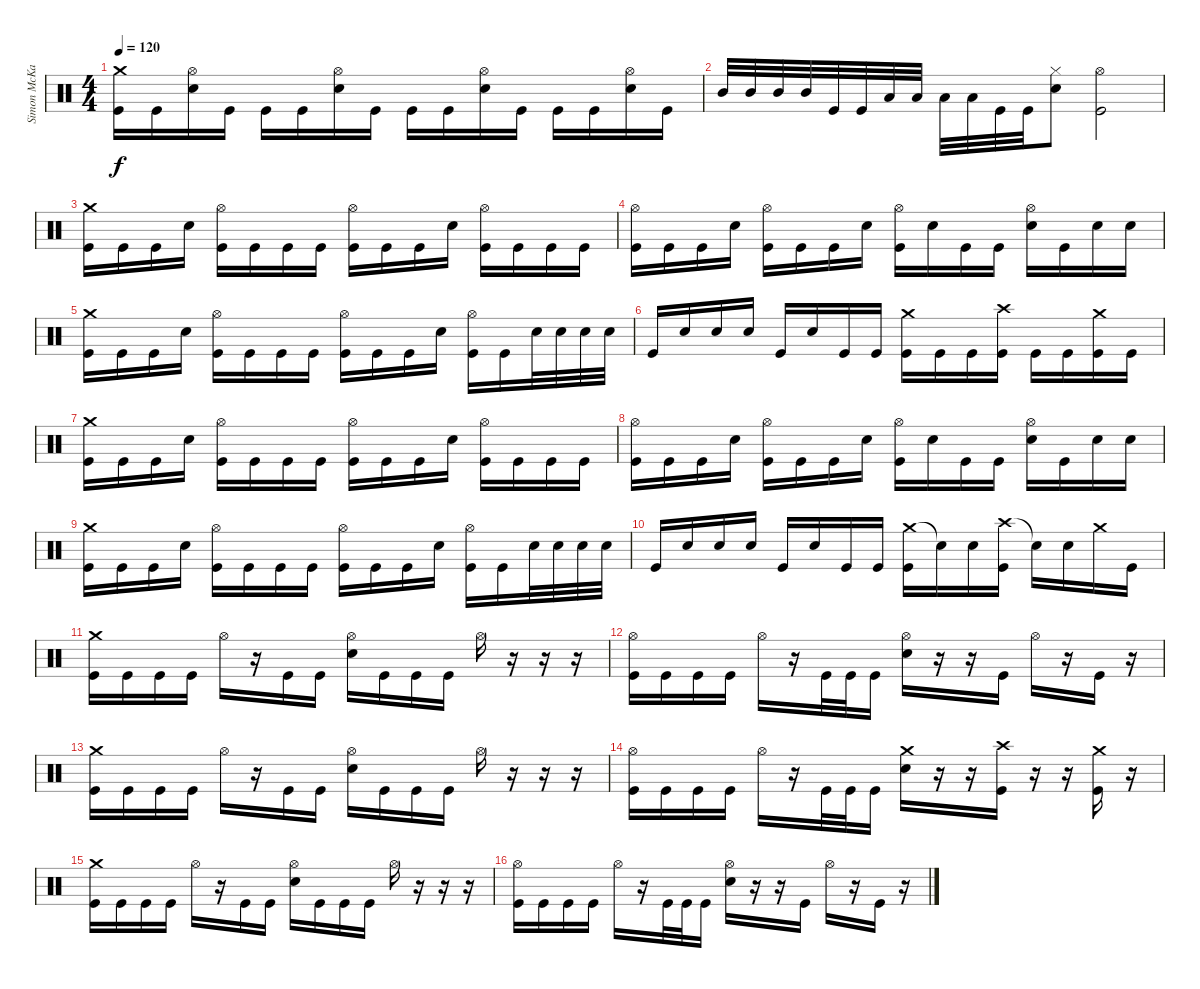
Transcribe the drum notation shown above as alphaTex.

\track ("Simon McKay" "Simon McKa") {instrument percussion}
\staff {score}
\articulation defaults
\ts (4 4)
\tempo 120
\clef neutral
\ks c
("Crash medium (hit)" "Kick (hit)").16{dy f} "Kick (hit)".16 ("Hi-Hat (open)" "Electric Snare (hit)").16 "Kick (hit)".16 "Kick (hit)".16 "Kick (hit)".16 ("Hi-Hat (open)" "Electric Snare (hit)").16 "Kick (hit)".16 "Kick (hit)".16 "Kick (hit)".16 ("Hi-Hat (open)" "Electric Snare (hit)").16 "Kick (hit)".16 "Kick (hit)".16 "Kick (hit)".16 ("Hi-Hat (open)" "Electric Snare (hit)").16 "Kick (hit)".16 |
"Mid Tom (hit)".32 "Mid Tom (hit)".32 "Mid Tom (hit)".32 "Mid Tom (hit)".32 "Kick (hit)".32 "Kick (hit)".32 "Low Tom (hit)".32 "Low Tom (hit)".32 "Low Tom (hit)".32 "Low Tom (hit)".32 "Kick (hit)".32 "Kick (hit)".32 ("Hi-Hat (closed)" "Electric Snare (hit)").8 ("Hi-Hat (open)" "Kick (hit)").2 |
("Crash medium (hit)" "Kick (hit)").16 "Kick (hit)".16 "Kick (hit)".16 "Electric Snare (hit)".16 ("Hi-Hat (open)" "Kick (hit)").16 "Kick (hit)".16 "Kick (hit)".16 "Kick (hit)".16 ("Hi-Hat (open)" "Kick (hit)").16 "Kick (hit)".16 "Kick (hit)".16 "Electric Snare (hit)".16 ("Hi-Hat (open)" "Kick (hit)").16 "Kick (hit)".16 "Kick (hit)".16 "Kick (hit)".16 |
("Hi-Hat (open)" "Kick (hit)").16 "Kick (hit)".16 "Kick (hit)".16 "Electric Snare (hit)".16 ("Hi-Hat (open)" "Kick (hit)").16 "Kick (hit)".16 "Kick (hit)".16 "Electric Snare (hit)".16 ("Hi-Hat (open)" "Kick (hit)").16 "Electric Snare (hit)".16 "Kick (hit)".16 "Kick (hit)".16 ("Hi-Hat (open)" "Electric Snare (hit)").16 "Kick (hit)".16 "Electric Snare (hit)".16 "Electric Snare (hit)".16 |
("Crash medium (hit)" "Kick (hit)").16 "Kick (hit)".16 "Kick (hit)".16 "Electric Snare (hit)".16 ("Hi-Hat (open)" "Kick (hit)").16 "Kick (hit)".16 "Kick (hit)".16 "Kick (hit)".16 ("Hi-Hat (open)" "Kick (hit)").16 "Kick (hit)".16 "Kick (hit)".16 "Electric Snare (hit)".16 ("Hi-Hat (open)" "Kick (hit)").16 "Kick (hit)".16 "Electric Snare (hit)".32 "Electric Snare (hit)".32 "Electric Snare (hit)".32 "Electric Snare (hit)".32 |
"Kick (hit)".16 "Electric Snare (hit)".16 "Electric Snare (hit)".16 "Electric Snare (hit)".16 "Kick (hit)".16 "Electric Snare (hit)".16 "Kick (hit)".16 "Kick (hit)".16 ("Crash medium (hit)" "Kick (hit)").16 "Kick (hit)".16 "Kick (hit)".16 ("Crash high (hit)" "Kick (hit)").16 "Kick (hit)".16 "Kick (hit)".16 ("Crash medium (hit)" "Kick (hit)").16 "Kick (hit)".16 |
("Crash medium (hit)" "Kick (hit)").16 "Kick (hit)".16 "Kick (hit)".16 "Electric Snare (hit)".16 ("Hi-Hat (open)" "Kick (hit)").16 "Kick (hit)".16 "Kick (hit)".16 "Kick (hit)".16 ("Hi-Hat (open)" "Kick (hit)").16 "Kick (hit)".16 "Kick (hit)".16 "Electric Snare (hit)".16 ("Hi-Hat (open)" "Kick (hit)").16 "Kick (hit)".16 "Kick (hit)".16 "Kick (hit)".16 |
("Hi-Hat (open)" "Kick (hit)").16 "Kick (hit)".16 "Kick (hit)".16 "Electric Snare (hit)".16 ("Hi-Hat (open)" "Kick (hit)").16 "Kick (hit)".16 "Kick (hit)".16 "Electric Snare (hit)".16 ("Hi-Hat (open)" "Kick (hit)").16 "Electric Snare (hit)".16 "Kick (hit)".16 "Kick (hit)".16 ("Hi-Hat (open)" "Electric Snare (hit)").16 "Kick (hit)".16 "Electric Snare (hit)".16 "Electric Snare (hit)".16 |
("Crash medium (hit)" "Kick (hit)").16 "Kick (hit)".16 "Kick (hit)".16 "Electric Snare (hit)".16 ("Hi-Hat (open)" "Kick (hit)").16 "Kick (hit)".16 "Kick (hit)".16 "Kick (hit)".16 ("Hi-Hat (open)" "Kick (hit)").16 "Kick (hit)".16 "Kick (hit)".16 "Electric Snare (hit)".16 ("Hi-Hat (open)" "Kick (hit)").16 "Kick (hit)".16 "Electric Snare (hit)".32 "Electric Snare (hit)".32 "Electric Snare (hit)".32 "Electric Snare (hit)".32 |
"Kick (hit)".16 "Electric Snare (hit)".16 "Electric Snare (hit)".16 "Electric Snare (hit)".16 "Kick (hit)".16 "Electric Snare (hit)".16 "Kick (hit)".16 "Kick (hit)".16 ("Crash medium (hit)" "Kick (hit)").16 "Snare (hit)"{t}.16 "Electric Snare (hit)".16 ("Crash high (hit)" "Kick (hit)").16 "Snare (hit)"{t}.16 "Electric Snare (hit)".16 "Crash medium (hit)".16 "Kick (hit)".16 |
("Crash medium (hit)" "Kick (hit)").16 "Kick (hit)".16 "Kick (hit)".16 "Kick (hit)".16 "Hi-Hat (open)".16 r.16 "Kick (hit)".16 "Kick (hit)".16 ("Hi-Hat (open)" "Electric Snare (hit)").16 "Kick (hit)".16 "Kick (hit)".16 "Kick (hit)".16 "Hi-Hat (open)".16 r.16 r.16 r.16 |
("Hi-Hat (open)" "Kick (hit)").16 "Kick (hit)".16 "Kick (hit)".16 "Kick (hit)".16 "Hi-Hat (open)".16 r.16 "Kick (hit)".32 "Kick (hit)".32 "Kick (hit)".16 ("Hi-Hat (open)" "Electric Snare (hit)").16 r.16 r.16 "Kick (hit)".16 "Hi-Hat (open)".16 r.16 "Kick (hit)".16 r.16 |
("Crash medium (hit)" "Kick (hit)").16 "Kick (hit)".16 "Kick (hit)".16 "Kick (hit)".16 "Hi-Hat (open)".16 r.16 "Kick (hit)".16 "Kick (hit)".16 ("Hi-Hat (open)" "Electric Snare (hit)").16 "Kick (hit)".16 "Kick (hit)".16 "Kick (hit)".16 "Hi-Hat (open)".16 r.16 r.16 r.16 |
("Hi-Hat (open)" "Kick (hit)").16 "Kick (hit)".16 "Kick (hit)".16 "Kick (hit)".16 "Hi-Hat (open)".16 r.16 "Kick (hit)".32 "Kick (hit)".32 "Kick (hit)".16 ("Crash medium (hit)" "Electric Snare (hit)").16 r.16 r.16 ("Crash high (hit)" "Kick (hit)").16 r.16 r.16 ("Crash medium (hit)" "Kick (hit)").16 r.16 |
("Crash medium (hit)" "Kick (hit)").16 "Kick (hit)".16 "Kick (hit)".16 "Kick (hit)".16 "Hi-Hat (open)".16 r.16 "Kick (hit)".16 "Kick (hit)".16 ("Hi-Hat (open)" "Electric Snare (hit)").16 "Kick (hit)".16 "Kick (hit)".16 "Kick (hit)".16 "Hi-Hat (open)".16 r.16 r.16 r.16 |
("Hi-Hat (open)" "Kick (hit)").16 "Kick (hit)".16 "Kick (hit)".16 "Kick (hit)".16 "Hi-Hat (open)".16 r.16 "Kick (hit)".32 "Kick (hit)".32 "Kick (hit)".16 ("Hi-Hat (open)" "Electric Snare (hit)").16 r.16 r.16 "Kick (hit)".16 "Hi-Hat (open)".16 r.16 "Kick (hit)".16 r.16
